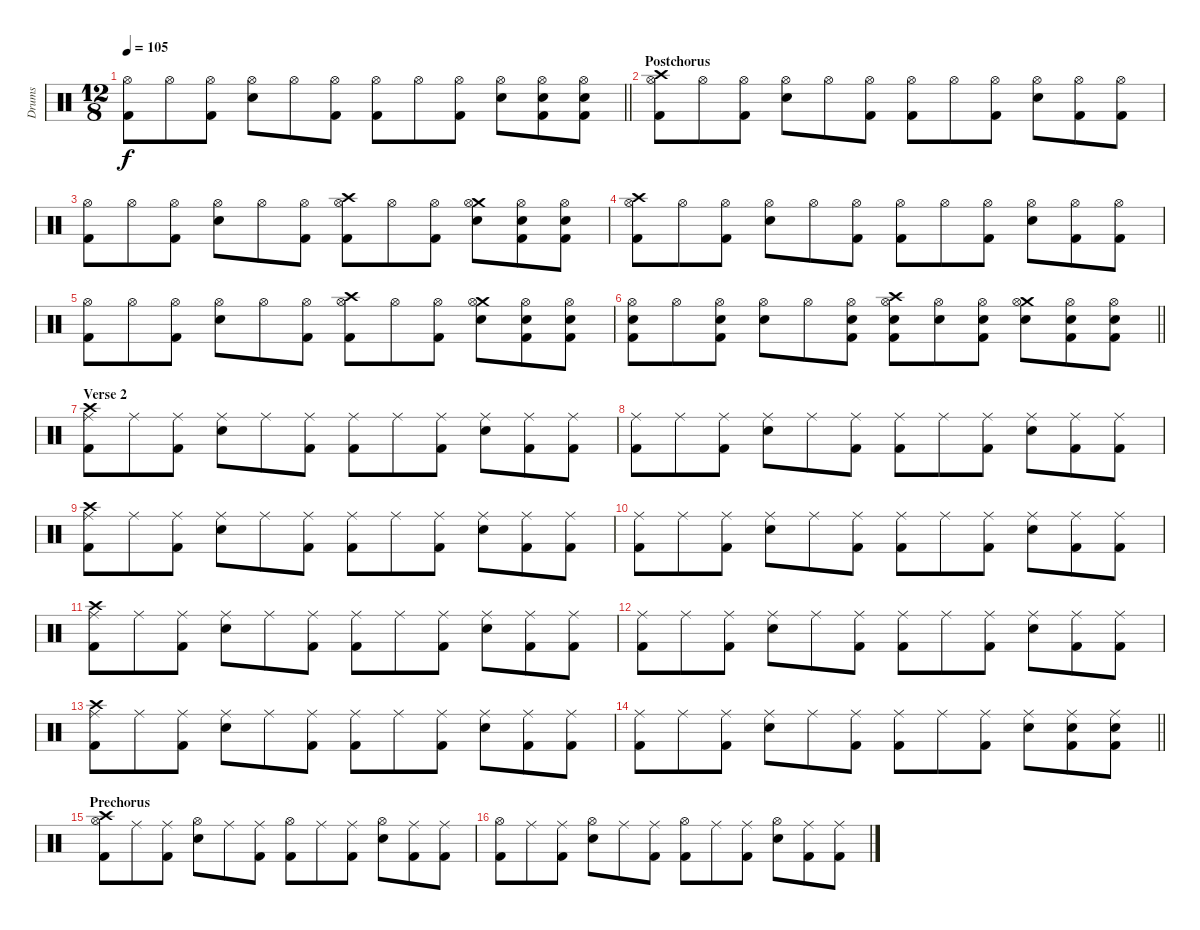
\track ("Drums" "Drums") {instrument percussion}
\staff {score}
\articulation defaults
\ts (12 8)
\tempo 105
\clef neutral
\barLineRight lightlight
\ks c
("Hi-Hat (open)" "Kick (hit) 2").8{dy f} "Hi-Hat (open)".8 ("Hi-Hat (open)" "Kick (hit) 2").8 ("Hi-Hat (open)" "Snare (hit) 2").8 "Hi-Hat (open)".8 ("Hi-Hat (open)" "Kick (hit) 2").8 ("Hi-Hat (open)" "Kick (hit) 2").8 "Hi-Hat (open)".8 ("Hi-Hat (open)" "Kick (hit) 2").8 ("Hi-Hat (open)" "Snare (hit) 2").8 ("Hi-Hat (open)" "Snare (hit) 2" "Kick (hit) 2").8 ("Hi-Hat (open)" "Snare (hit) 2" "Kick (hit) 2").8 |
\section ("" "Postchorus")
("Crash high (hit)" "Hi-Hat (open)" "Kick (hit) 2").8 "Hi-Hat (open)".8 ("Hi-Hat (open)" "Kick (hit) 2").8 ("Hi-Hat (open)" "Snare (hit) 2").8 "Hi-Hat (open)".8 ("Hi-Hat (open)" "Kick (hit) 2").8 ("Hi-Hat (open)" "Kick (hit) 2").8 "Hi-Hat (open)".8 ("Hi-Hat (open)" "Kick (hit) 2").8 ("Hi-Hat (open)" "Snare (hit) 2").8 ("Hi-Hat (open)" "Kick (hit) 2").8 ("Hi-Hat (open)" "Kick (hit) 2").8 |
("Hi-Hat (open)" "Kick (hit) 2").8 "Hi-Hat (open)".8 ("Hi-Hat (open)" "Kick (hit) 2").8 ("Hi-Hat (open)" "Snare (hit) 2").8 "Hi-Hat (open)".8 ("Hi-Hat (open)" "Kick (hit) 2").8 ("Crash high (hit)" "Hi-Hat (open)" "Kick (hit) 2").8 "Hi-Hat (open)".8 ("Hi-Hat (open)" "Kick (hit) 2").8 ("Crash medium (hit)" "Hi-Hat (open)" "Snare (hit) 2").8 ("Hi-Hat (open)" "Snare (hit) 2" "Kick (hit) 2").8 ("Hi-Hat (open)" "Snare (hit) 2" "Kick (hit) 2").8 |
("Crash high (hit)" "Hi-Hat (open)" "Kick (hit) 2").8 "Hi-Hat (open)".8 ("Hi-Hat (open)" "Kick (hit) 2").8 ("Hi-Hat (open)" "Snare (hit) 2").8 "Hi-Hat (open)".8 ("Hi-Hat (open)" "Kick (hit) 2").8 ("Hi-Hat (open)" "Kick (hit) 2").8 "Hi-Hat (open)".8 ("Hi-Hat (open)" "Kick (hit) 2").8 ("Hi-Hat (open)" "Snare (hit) 2").8 ("Hi-Hat (open)" "Kick (hit) 2").8 ("Hi-Hat (open)" "Kick (hit) 2").8 |
("Hi-Hat (open)" "Kick (hit) 2").8 "Hi-Hat (open)".8 ("Hi-Hat (open)" "Kick (hit) 2").8 ("Hi-Hat (open)" "Snare (hit) 2").8 "Hi-Hat (open)".8 ("Hi-Hat (open)" "Kick (hit) 2").8 ("Crash high (hit)" "Hi-Hat (open)" "Kick (hit) 2").8 "Hi-Hat (open)".8 ("Hi-Hat (open)" "Kick (hit) 2").8 ("Crash medium (hit)" "Hi-Hat (open)" "Snare (hit) 2").8 ("Hi-Hat (open)" "Snare (hit) 2" "Kick (hit) 2").8 ("Hi-Hat (open)" "Snare (hit) 2" "Kick (hit) 2").8 |
\barLineRight lightlight
("Hi-Hat (open)" "Snare (hit) 2" "Kick (hit) 2").8 "Hi-Hat (open)".8 ("Hi-Hat (open)" "Snare (hit) 2" "Kick (hit) 2").8 ("Hi-Hat (open)" "Snare (hit) 2").8 "Hi-Hat (open)".8 ("Hi-Hat (open)" "Snare (hit) 2" "Kick (hit) 2").8 ("Crash high (hit)" "Hi-Hat (open)" "Snare (hit) 2" "Kick (hit) 2").8 ("Hi-Hat (open)" "Snare (hit) 2").8 ("Hi-Hat (open)" "Snare (hit) 2" "Kick (hit) 2").8 ("Crash medium (hit)" "Hi-Hat (open)" "Snare (hit) 2").8 ("Hi-Hat (open)" "Snare (hit) 2" "Kick (hit) 2").8 ("Hi-Hat (open)" "Snare (hit) 2" "Kick (hit) 2").8 |
\section ("" "Verse 2")
("Crash high (hit)" "Ride (middle)" "Kick (hit) 2").8 "Ride (middle)".8 ("Ride (middle)" "Kick (hit) 2").8 ("Ride (middle)" "Snare (hit) 2").8 "Ride (middle)".8 ("Ride (middle)" "Kick (hit) 2").8 ("Ride (middle)" "Kick (hit) 2").8 "Ride (middle)".8 ("Ride (middle)" "Kick (hit) 2").8 ("Ride (middle)" "Snare (hit) 2").8 ("Ride (middle)" "Kick (hit) 2").8 ("Ride (middle)" "Kick (hit) 2").8 |
("Ride (middle)" "Kick (hit) 2").8 "Ride (middle)".8 ("Ride (middle)" "Kick (hit) 2").8 ("Ride (middle)" "Snare (hit) 2").8 "Ride (middle)".8 ("Ride (middle)" "Kick (hit) 2").8 ("Ride (middle)" "Kick (hit) 2").8 "Ride (middle)".8 ("Ride (middle)" "Kick (hit) 2").8 ("Ride (middle)" "Snare (hit) 2").8 ("Ride (middle)" "Kick (hit) 2").8 ("Ride (middle)" "Kick (hit) 2").8 |
("Crash high (hit)" "Ride (middle)" "Kick (hit) 2").8 "Ride (middle)".8 ("Ride (middle)" "Kick (hit) 2").8 ("Ride (middle)" "Snare (hit) 2").8 "Ride (middle)".8 ("Ride (middle)" "Kick (hit) 2").8 ("Ride (middle)" "Kick (hit) 2").8 "Ride (middle)".8 ("Ride (middle)" "Kick (hit) 2").8 ("Ride (middle)" "Snare (hit) 2").8 ("Ride (middle)" "Kick (hit) 2").8 ("Ride (middle)" "Kick (hit) 2").8 |
("Ride (middle)" "Kick (hit) 2").8 "Ride (middle)".8 ("Ride (middle)" "Kick (hit) 2").8 ("Ride (middle)" "Snare (hit) 2").8 "Ride (middle)".8 ("Ride (middle)" "Kick (hit) 2").8 ("Ride (middle)" "Kick (hit) 2").8 "Ride (middle)".8 ("Ride (middle)" "Kick (hit) 2").8 ("Ride (middle)" "Snare (hit) 2").8 ("Ride (middle)" "Kick (hit) 2").8 ("Ride (middle)" "Kick (hit) 2").8 |
("Crash high (hit)" "Ride (middle)" "Kick (hit) 2").8 "Ride (middle)".8 ("Ride (middle)" "Kick (hit) 2").8 ("Ride (middle)" "Snare (hit) 2").8 "Ride (middle)".8 ("Ride (middle)" "Kick (hit) 2").8 ("Ride (middle)" "Kick (hit) 2").8 "Ride (middle)".8 ("Ride (middle)" "Kick (hit) 2").8 ("Ride (middle)" "Snare (hit) 2").8 ("Ride (middle)" "Kick (hit) 2").8 ("Ride (middle)" "Kick (hit) 2").8 |
("Ride (middle)" "Kick (hit) 2").8 "Ride (middle)".8 ("Ride (middle)" "Kick (hit) 2").8 ("Ride (middle)" "Snare (hit) 2").8 "Ride (middle)".8 ("Ride (middle)" "Kick (hit) 2").8 ("Ride (middle)" "Kick (hit) 2").8 "Ride (middle)".8 ("Ride (middle)" "Kick (hit) 2").8 ("Ride (middle)" "Snare (hit) 2").8 ("Ride (middle)" "Kick (hit) 2").8 ("Ride (middle)" "Kick (hit) 2").8 |
("Crash high (hit)" "Ride (middle)" "Kick (hit) 2").8 "Ride (middle)".8 ("Ride (middle)" "Kick (hit) 2").8 ("Ride (middle)" "Snare (hit) 2").8 "Ride (middle)".8 ("Ride (middle)" "Kick (hit) 2").8 ("Ride (middle)" "Kick (hit) 2").8 "Ride (middle)".8 ("Ride (middle)" "Kick (hit) 2").8 ("Ride (middle)" "Snare (hit) 2").8 ("Ride (middle)" "Kick (hit) 2").8 ("Ride (middle)" "Kick (hit) 2").8 |
\barLineRight lightlight
("Ride (middle)" "Kick (hit) 2").8 "Ride (middle)".8 ("Ride (middle)" "Kick (hit) 2").8 ("Ride (middle)" "Snare (hit) 2").8 "Ride (middle)".8 ("Ride (middle)" "Kick (hit) 2").8 ("Ride (middle)" "Kick (hit) 2").8 "Ride (middle)".8 ("Ride (middle)" "Kick (hit) 2").8 ("Ride (middle)" "Snare (hit) 2").8 ("Ride (middle)" "Snare (hit) 2" "Kick (hit) 2").8 ("Ride (middle)" "Snare (hit) 2" "Kick (hit) 2").8 |
\section ("" "Prechorus")
("Crash high (hit)" "Hi-Hat (open)" "Kick (hit) 2").8 "Ride (middle)".8 ("Ride (middle)" "Kick (hit) 2").8 ("Hi-Hat (open)" "Snare (hit) 2").8 "Ride (middle)".8 ("Ride (middle)" "Kick (hit) 2").8 ("Hi-Hat (open)" "Kick (hit) 2").8 "Ride (middle)".8 ("Ride (middle)" "Kick (hit) 2").8 ("Hi-Hat (open)" "Snare (hit) 2").8 ("Ride (middle)" "Kick (hit) 2").8 ("Ride (middle)" "Kick (hit) 2").8 |
("Hi-Hat (open)" "Kick (hit) 2").8 "Ride (middle)".8 ("Ride (middle)" "Kick (hit) 2").8 ("Hi-Hat (open)" "Snare (hit) 2").8 "Ride (middle)".8 ("Ride (middle)" "Kick (hit) 2").8 ("Hi-Hat (open)" "Kick (hit) 2").8 "Ride (middle)".8 ("Ride (middle)" "Kick (hit) 2").8 ("Hi-Hat (open)" "Snare (hit) 2").8 ("Ride (middle)" "Kick (hit) 2").8 ("Ride (middle)" "Kick (hit) 2").8
